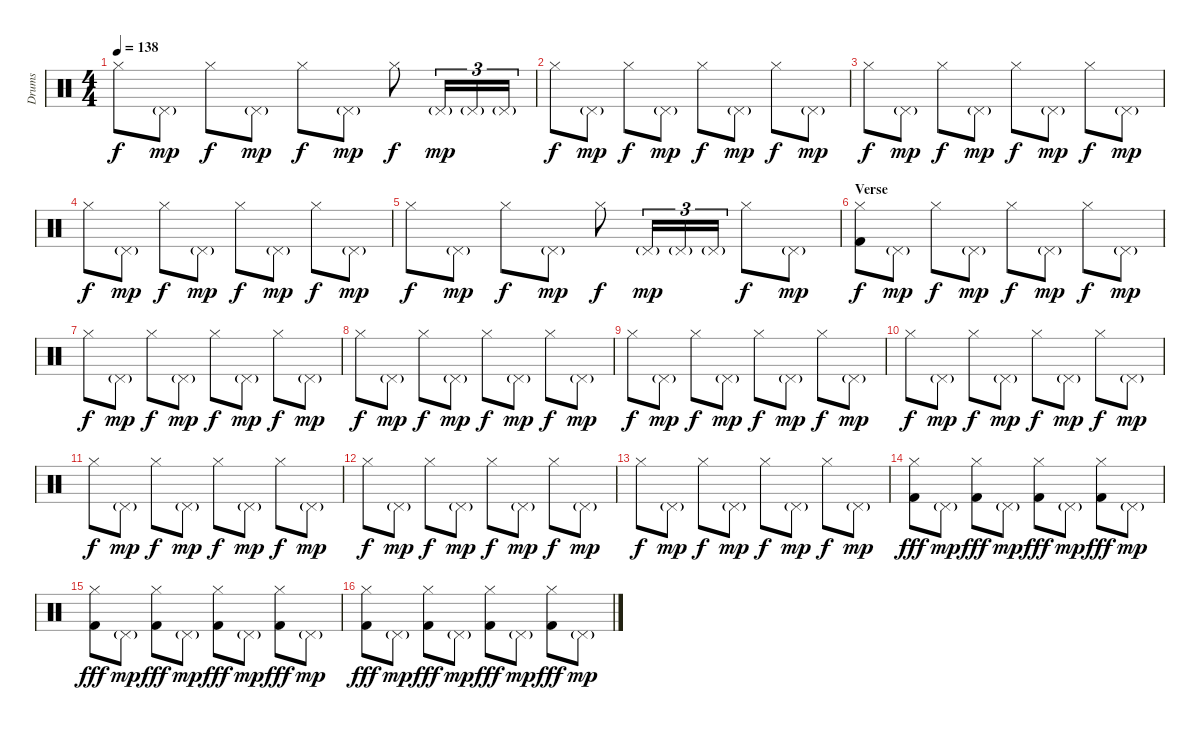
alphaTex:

\track ("Drums" "Drums") {instrument percussion}
\staff {score}
\articulation defaults
\ts (4 4)
\tempo 138
\clef neutral
\ks c "Hi-Hat (closed)".8{dy f} "Pedal Hi-Hat (hit)"{g}.8{dy mp} "Hi-Hat (closed)".8{dy f} "Pedal Hi-Hat (hit)"{g}.8{dy mp} "Hi-Hat (closed)".8{dy f} "Pedal Hi-Hat (hit)"{g}.8{dy mp} "Hi-Hat (closed)".8{dy f} "Pedal Hi-Hat (hit)"{g}.16{tu (3 2) dy mp} "Pedal Hi-Hat (hit)"{g}.16{tu (3 2)} "Pedal Hi-Hat (hit)"{g}.16{tu (3 2)}
|
"Hi-Hat (closed)".8{dy f} "Pedal Hi-Hat (hit)"{g}.8{dy mp} "Hi-Hat (closed)".8{dy f} "Pedal Hi-Hat (hit)"{g}.8{dy mp} "Hi-Hat (closed)".8{dy f} "Pedal Hi-Hat (hit)"{g}.8{dy mp} "Hi-Hat (closed)".8{dy f} "Pedal Hi-Hat (hit)"{g}.8{dy mp} |
"Hi-Hat (closed)".8{dy f} "Pedal Hi-Hat (hit)"{g}.8{dy mp} "Hi-Hat (closed)".8{dy f} "Pedal Hi-Hat (hit)"{g}.8{dy mp} "Hi-Hat (closed)".8{dy f} "Pedal Hi-Hat (hit)"{g}.8{dy mp} "Hi-Hat (closed)".8{dy f} "Pedal Hi-Hat (hit)"{g}.8{dy mp} |
"Hi-Hat (closed)".8{dy f} "Pedal Hi-Hat (hit)"{g}.8{dy mp} "Hi-Hat (closed)".8{dy f} "Pedal Hi-Hat (hit)"{g}.8{dy mp} "Hi-Hat (closed)".8{dy f} "Pedal Hi-Hat (hit)"{g}.8{dy mp} "Hi-Hat (closed)".8{dy f} "Pedal Hi-Hat (hit)"{g}.8{dy mp} |
"Hi-Hat (closed)".8{dy f} "Pedal Hi-Hat (hit)"{g}.8{dy mp} "Hi-Hat (closed)".8{dy f} "Pedal Hi-Hat (hit)"{g}.8{dy mp} "Hi-Hat (closed)".8{dy f} "Pedal Hi-Hat (hit)"{g}.16{tu (3 2) dy mp} "Pedal Hi-Hat (hit)"{g}.16{tu (3 2)} "Pedal Hi-Hat (hit)"{g}.16{tu (3 2)} "Hi-Hat (closed)".8{dy f} "Pedal Hi-Hat (hit)"{g}.8{dy mp} |
\section ("" "Verse")
("Hi-Hat (closed)" "Kick (hit) 2").8{dy f} "Pedal Hi-Hat (hit)"{g}.8{dy mp} "Hi-Hat (closed)".8{dy f} "Pedal Hi-Hat (hit)"{g}.8{dy mp} "Hi-Hat (closed)".8{dy f} "Pedal Hi-Hat (hit)"{g}.8{dy mp} "Hi-Hat (closed)".8{dy f} "Pedal Hi-Hat (hit)"{g}.8{dy mp} |
"Hi-Hat (closed)".8{dy f} "Pedal Hi-Hat (hit)"{g}.8{dy mp} "Hi-Hat (closed)".8{dy f} "Pedal Hi-Hat (hit)"{g}.8{dy mp} "Hi-Hat (closed)".8{dy f} "Pedal Hi-Hat (hit)"{g}.8{dy mp} "Hi-Hat (closed)".8{dy f} "Pedal Hi-Hat (hit)"{g}.8{dy mp} |
"Hi-Hat (closed)".8{dy f} "Pedal Hi-Hat (hit)"{g}.8{dy mp} "Hi-Hat (closed)".8{dy f} "Pedal Hi-Hat (hit)"{g}.8{dy mp} "Hi-Hat (closed)".8{dy f} "Pedal Hi-Hat (hit)"{g}.8{dy mp} "Hi-Hat (closed)".8{dy f} "Pedal Hi-Hat (hit)"{g}.8{dy mp} |
"Hi-Hat (closed)".8{dy f} "Pedal Hi-Hat (hit)"{g}.8{dy mp} "Hi-Hat (closed)".8{dy f} "Pedal Hi-Hat (hit)"{g}.8{dy mp} "Hi-Hat (closed)".8{dy f} "Pedal Hi-Hat (hit)"{g}.8{dy mp} "Hi-Hat (closed)".8{dy f} "Pedal Hi-Hat (hit)"{g}.8{dy mp} |
"Hi-Hat (closed)".8{dy f} "Pedal Hi-Hat (hit)"{g}.8{dy mp} "Hi-Hat (closed)".8{dy f} "Pedal Hi-Hat (hit)"{g}.8{dy mp} "Hi-Hat (closed)".8{dy f} "Pedal Hi-Hat (hit)"{g}.8{dy mp} "Hi-Hat (closed)".8{dy f} "Pedal Hi-Hat (hit)"{g}.8{dy mp} |
"Hi-Hat (closed)".8{dy f} "Pedal Hi-Hat (hit)"{g}.8{dy mp} "Hi-Hat (closed)".8{dy f} "Pedal Hi-Hat (hit)"{g}.8{dy mp} "Hi-Hat (closed)".8{dy f} "Pedal Hi-Hat (hit)"{g}.8{dy mp} "Hi-Hat (closed)".8{dy f} "Pedal Hi-Hat (hit)"{g}.8{dy mp} |
"Hi-Hat (closed)".8{dy f} "Pedal Hi-Hat (hit)"{g}.8{dy mp} "Hi-Hat (closed)".8{dy f} "Pedal Hi-Hat (hit)"{g}.8{dy mp} "Hi-Hat (closed)".8{dy f} "Pedal Hi-Hat (hit)"{g}.8{dy mp} "Hi-Hat (closed)".8{dy f} "Pedal Hi-Hat (hit)"{g}.8{dy mp} |
"Hi-Hat (closed)".8{dy f} "Pedal Hi-Hat (hit)"{g}.8{dy mp} "Hi-Hat (closed)".8{dy f} "Pedal Hi-Hat (hit)"{g}.8{dy mp} "Hi-Hat (closed)".8{dy f} "Pedal Hi-Hat (hit)"{g}.8{dy mp} "Hi-Hat (closed)".8{dy f} "Pedal Hi-Hat (hit)"{g}.8{dy mp} |
("Hi-Hat (closed)" "Kick (hit) 2").8{dy fff} "Pedal Hi-Hat (hit)"{g}.8{dy mp} ("Hi-Hat (closed)" "Kick (hit) 2").8{dy fff} "Pedal Hi-Hat (hit)"{g}.8{dy mp} ("Hi-Hat (closed)" "Kick (hit) 2").8{dy fff} "Pedal Hi-Hat (hit)"{g}.8{dy mp} ("Hi-Hat (closed)" "Kick (hit) 2").8{dy fff} "Pedal Hi-Hat (hit)"{g}.8{dy mp} |
("Hi-Hat (closed)" "Kick (hit) 2").8{dy fff} "Pedal Hi-Hat (hit)"{g}.8{dy mp} ("Hi-Hat (closed)" "Kick (hit) 2").8{dy fff} "Pedal Hi-Hat (hit)"{g}.8{dy mp} ("Hi-Hat (closed)" "Kick (hit) 2").8{dy fff} "Pedal Hi-Hat (hit)"{g}.8{dy mp} ("Hi-Hat (closed)" "Kick (hit) 2").8{dy fff} "Pedal Hi-Hat (hit)"{g}.8{dy mp} |
("Hi-Hat (closed)" "Kick (hit) 2").8{dy fff} "Pedal Hi-Hat (hit)"{g}.8{dy mp} ("Hi-Hat (closed)" "Kick (hit) 2").8{dy fff} "Pedal Hi-Hat (hit)"{g}.8{dy mp} ("Hi-Hat (closed)" "Kick (hit) 2").8{dy fff} "Pedal Hi-Hat (hit)"{g}.8{dy mp} ("Hi-Hat (closed)" "Kick (hit) 2").8{dy fff} "Pedal Hi-Hat (hit)"{g}.8{dy mp}
